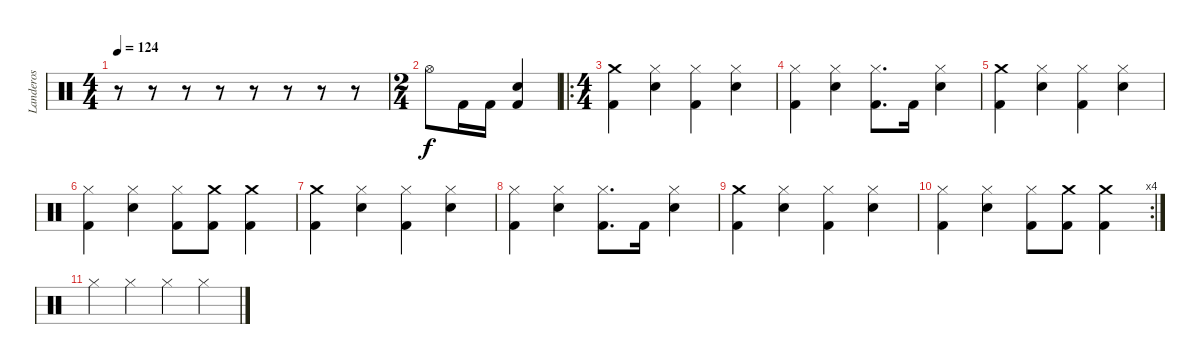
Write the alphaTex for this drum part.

\track ("Landeros" "Landeros") {instrument percussion}
\staff {score}
\articulation defaults
\ts (4 4)
\tempo 124
\clef neutral
\ks c
r.8{dy f} r.8 r.8 r.8 r.8 r.8 r.8 r.8 |
\ts (2 4)
"Hi-Hat (open)".8 "Kick (hit) 2".16 "Kick (hit) 2".16 ("Kick (hit) 2" "Electric Snare (hit)").4 |
\ro
\ts (4 4)
("Kick (hit) 2" "Crash medium (hit)").4 ("Electric Snare (hit)" "Hi-Hat (closed)").4 ("Kick (hit) 2" "Hi-Hat (closed)").4 ("Electric Snare (hit)" "Hi-Hat (closed)").4 |
("Kick (hit) 2" "Hi-Hat (closed)").4 ("Electric Snare (hit)" "Hi-Hat (closed)").4 ("Kick (hit) 2" "Hi-Hat (closed)").8{d} "Kick (hit) 2".16 ("Electric Snare (hit)" "Hi-Hat (closed)").4 |
("Kick (hit) 2" "Crash medium (hit)").4 ("Electric Snare (hit)" "Hi-Hat (closed)").4 ("Kick (hit) 2" "Hi-Hat (closed)").4 ("Electric Snare (hit)" "Hi-Hat (closed)").4 |
("Kick (hit) 2" "Hi-Hat (closed)").4 ("Electric Snare (hit)" "Hi-Hat (closed)").4 ("Kick (hit) 2" "Hi-Hat (closed)").8 ("Crash medium (hit)" "Kick (hit) 2").8 ("Crash medium (hit)" "Kick (hit) 2").4 |
("Kick (hit) 2" "Crash medium (hit)").4 ("Electric Snare (hit)" "Hi-Hat (closed)").4 ("Kick (hit) 2" "Hi-Hat (closed)").4 ("Electric Snare (hit)" "Hi-Hat (closed)").4 |
("Kick (hit) 2" "Hi-Hat (closed)").4 ("Electric Snare (hit)" "Hi-Hat (closed)").4 ("Kick (hit) 2" "Hi-Hat (closed)").8{d} "Kick (hit) 2".16 ("Electric Snare (hit)" "Hi-Hat (closed)").4 |
("Kick (hit) 2" "Crash medium (hit)").4 ("Electric Snare (hit)" "Hi-Hat (closed)").4 ("Kick (hit) 2" "Hi-Hat (closed)").4 ("Electric Snare (hit)" "Hi-Hat (closed)").4 |
\rc 4
("Kick (hit) 2" "Hi-Hat (closed)").4 ("Electric Snare (hit)" "Hi-Hat (closed)").4 ("Kick (hit) 2" "Hi-Hat (closed)").8 ("Crash medium (hit)" "Kick (hit) 2").8 ("Crash medium (hit)" "Kick (hit) 2").4 |
"Hi-Hat (closed)".4 "Hi-Hat (closed)".4 "Hi-Hat (closed)".4 "Hi-Hat (closed)".4
